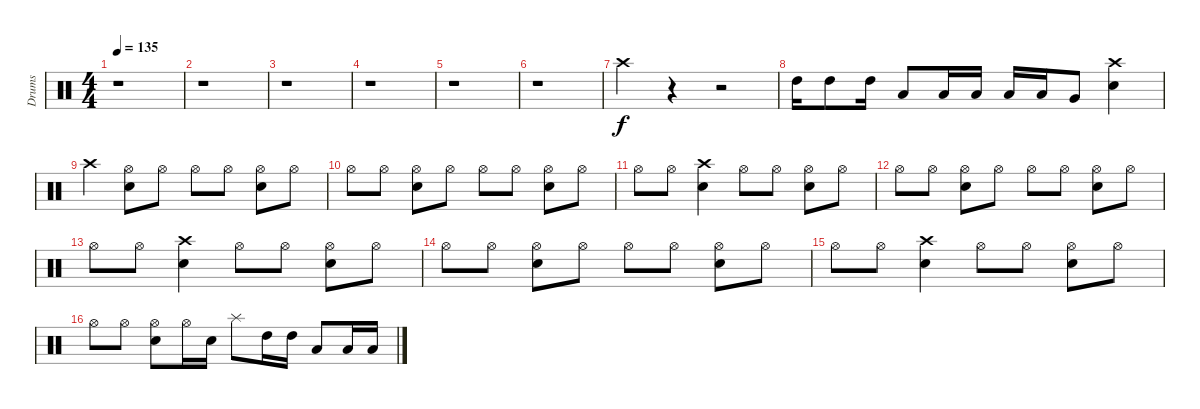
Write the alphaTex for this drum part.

\track ("Drums" "Drums") {instrument percussion}
\staff {score}
\articulation defaults
\ts (4 4)
\tempo 135
\clef neutral
\ks c
r.1{dy f} |
r.1 |
r.1 |
r.1 |
r.1 |
r.1 |
"Crash high (hit)".4 r.4 r.2 |
"High Tom (hit)".16 "High Tom (hit)".8 "High Tom (hit)".16 "Low Tom (hit)".8 "Low Tom (hit)".16 "Low Tom (hit)".16 "Low Tom (hit)".16 "Low Tom (hit)".16 "Very Low Tom (hit)".8 ("Crash high (hit)" "Snare (hit) 2").4 |
"Crash high (hit)".4 ("Hi-Hat (open)" "Snare (hit) 2").8 "Hi-Hat (open)".8 "Hi-Hat (open)".8 "Hi-Hat (open)".8 ("Hi-Hat (open)" "Snare (hit) 2").8 "Hi-Hat (open)".8 |
"Hi-Hat (open)".8 "Hi-Hat (open)".8 ("Hi-Hat (open)" "Snare (hit) 2").8 "Hi-Hat (open)".8 "Hi-Hat (open)".8 "Hi-Hat (open)".8 ("Hi-Hat (open)" "Snare (hit) 2").8 "Hi-Hat (open)".8 |
"Hi-Hat (open)".8 "Hi-Hat (open)".8 ("Crash high (hit)" "Snare (hit) 2").4 "Hi-Hat (open)".8 "Hi-Hat (open)".8 ("Hi-Hat (open)" "Snare (hit) 2").8 "Hi-Hat (open)".8 |
"Hi-Hat (open)".8 "Hi-Hat (open)".8 ("Hi-Hat (open)" "Snare (hit) 2").8 "Hi-Hat (open)".8 "Hi-Hat (open)".8 "Hi-Hat (open)".8 ("Hi-Hat (open)" "Snare (hit) 2").8 "Hi-Hat (open)".8 |
"Hi-Hat (open)".8 "Hi-Hat (open)".8 ("Crash high (hit)" "Snare (hit) 2").4 "Hi-Hat (open)".8 "Hi-Hat (open)".8 ("Hi-Hat (open)" "Snare (hit) 2").8 "Hi-Hat (open)".8 |
"Hi-Hat (open)".8 "Hi-Hat (open)".8 ("Hi-Hat (open)" "Snare (hit) 2").8 "Hi-Hat (open)".8 "Hi-Hat (open)".8 "Hi-Hat (open)".8 ("Hi-Hat (open)" "Snare (hit) 2").8 "Hi-Hat (open)".8 |
"Hi-Hat (open)".8 "Hi-Hat (open)".8 ("Crash high (hit)" "Snare (hit) 2").4 "Hi-Hat (open)".8 "Hi-Hat (open)".8 ("Hi-Hat (open)" "Snare (hit) 2").8 "Hi-Hat (open)".8 |
"Hi-Hat (open)".8 "Hi-Hat (open)".8 ("Hi-Hat (open)" "Snare (hit) 2").8 "Hi-Hat (open)".16 "Snare (hit) 2".16 "Splash (hit)".8 "High Tom (hit)".16 "High Tom (hit)".16 "Low Tom (hit)".8 "Low Tom (hit)".16 "Low Tom (hit)".16
